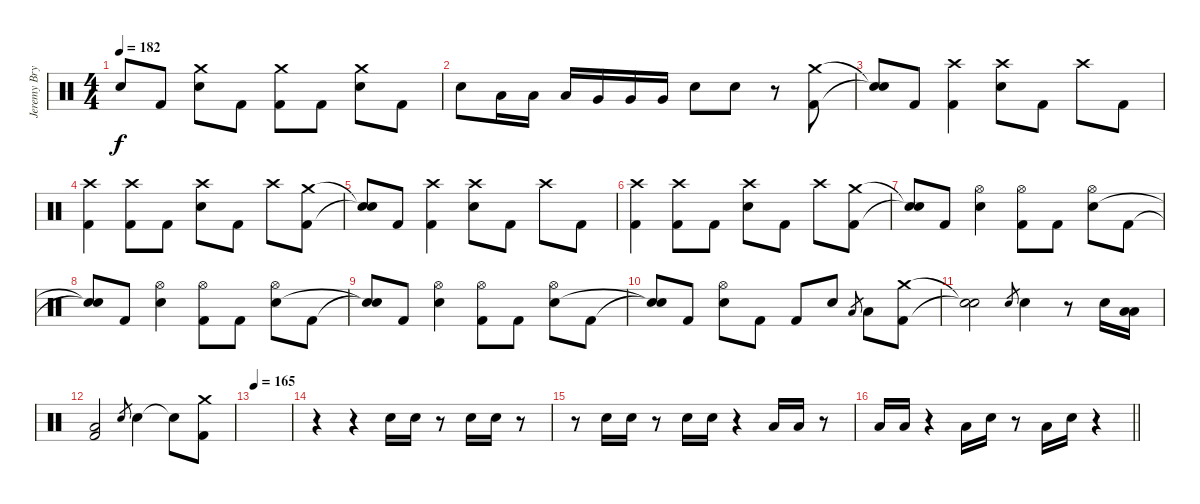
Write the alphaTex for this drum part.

\track ("Jeremy Bryan - Drums" "Jeremy Bry") {instrument percussion}
\staff {score}
\articulation defaults
\ts (4 4)
\tempo 182
\clef neutral
\ks c "Snare (hit)"{t}.8{dy f} "Kick (hit) 2".8
("Crash medium (hit)" "Electric Snare (hit)").8 "Kick (hit) 2".8 ("Crash medium (hit)" "Kick (hit) 2").8 "Kick (hit) 2".8 ("Crash medium (hit)" "Electric Snare (hit)").8 "Kick (hit) 2".8 |
"Electric Snare (hit)".8 "Low Tom (hit)".16 "Low Tom (hit)".16 "Low Tom (hit)".16 "Very Low Tom (hit)".16 "Very Low Tom (hit)".16 "Very Low Tom (hit)".16 "Electric Snare (hit)".8 "Electric Snare (hit)".8 r.8 ("Crash medium (hit)" "Kick (hit) 2").8 |
("Snare (hit)"{t} "Snare (hit)"{t}).8 "Kick (hit) 2".8 ("Crash high (hit)" "Kick (hit) 2").4 ("Crash high (hit)" "Electric Snare (hit)").8 "Kick (hit) 2".8 "Crash high (hit)".8 "Kick (hit) 2".8 |
("Crash high (hit)" "Kick (hit) 2").4 ("Crash high (hit)" "Kick (hit) 2").8 "Kick (hit) 2".8 ("Crash high (hit)" "Electric Snare (hit)").8 "Kick (hit) 2".8 "Crash high (hit)".8 ("Crash medium (hit)" "Kick (hit) 2").8 |
("Snare (hit)"{t} "Snare (hit)"{t}).8 "Kick (hit) 2".8 ("Crash high (hit)" "Kick (hit) 2").4 ("Crash high (hit)" "Electric Snare (hit)").8 "Kick (hit) 2".8 "Crash high (hit)".8 "Kick (hit) 2".8 |
("Crash high (hit)" "Kick (hit) 2").4 ("Crash high (hit)" "Kick (hit) 2").8 "Kick (hit) 2".8 ("Crash high (hit)" "Electric Snare (hit)").8 "Kick (hit) 2".8 "Crash high (hit)".8 ("Crash medium (hit)" "Kick (hit) 2").8 |
("Snare (hit)"{t} "Snare (hit)"{t}).8 "Kick (hit) 2".8 ("Hi-Hat (open)" "Electric Snare (hit)").4 ("Hi-Hat (open)" "Kick (hit) 2").8 "Kick (hit) 2".8 ("Hi-Hat (open)" "Electric Snare (hit)").8 "Kick (hit) 2".8 |
("Snare (hit)"{t} "Snare (hit)"{t}).8 "Kick (hit) 2".8 ("Hi-Hat (open)" "Electric Snare (hit)").4 ("Hi-Hat (open)" "Kick (hit) 2").8 "Kick (hit) 2".8 ("Hi-Hat (open)" "Electric Snare (hit)").8 "Kick (hit) 2".8 |
("Snare (hit)"{t} "Snare (hit)"{t}).8 "Kick (hit) 2".8 ("Hi-Hat (open)" "Electric Snare (hit)").4 ("Hi-Hat (open)" "Kick (hit) 2").8 "Kick (hit) 2".8 ("Hi-Hat (open)" "Electric Snare (hit)").8 "Kick (hit) 2".8 |
("Snare (hit)"{t} "Snare (hit)"{t}).8 "Kick (hit) 2".8 ("Hi-Hat (open)" "Electric Snare (hit)").8 "Kick (hit) 2".8 "Kick (hit) 2".8 "Electric Snare (hit)".8 "Low Tom (hit)".8{gr} "Low Tom (hit)".8 ("Crash medium (hit)" "Kick (hit) 2").8 |
("Snare (hit)"{t} "Snare (hit)"{t}).2 "Electric Snare (hit)".8{gr} "Electric Snare (hit)".4 r.8 "Electric Snare (hit)".16 ("Low Tom (hit)" "Low Tom (hit)").16 |
("Low Tom (hit)" "Kick (hit) 2").2 "Electric Snare (hit)".8{gr} "Electric Snare (hit)".4 "Snare (hit)"{t}.8 ("Crash medium (hit)" "Kick (hit) 2").8 |
\tempo 165
|
r.4 r.4 "Electric Snare (hit)".16 "Electric Snare (hit)".16 r.8 "Electric Snare (hit)".16 "Electric Snare (hit)".16 r.8 |
r.8 "Electric Snare (hit)".16 "Electric Snare (hit)".16 r.8 "Electric Snare (hit)".16 "Electric Snare (hit)".16 r.4 "Low Tom (hit)".16 "Low Tom (hit)".16 r.8 |
\barLineRight lightlight "Low Tom (hit)".16 "Low Tom (hit)".16
r.4 "Low Tom (hit)".16 "Electric Snare (hit)".16 r.8 "Low Tom (hit)".16 "Electric Snare (hit)".16 r.4
